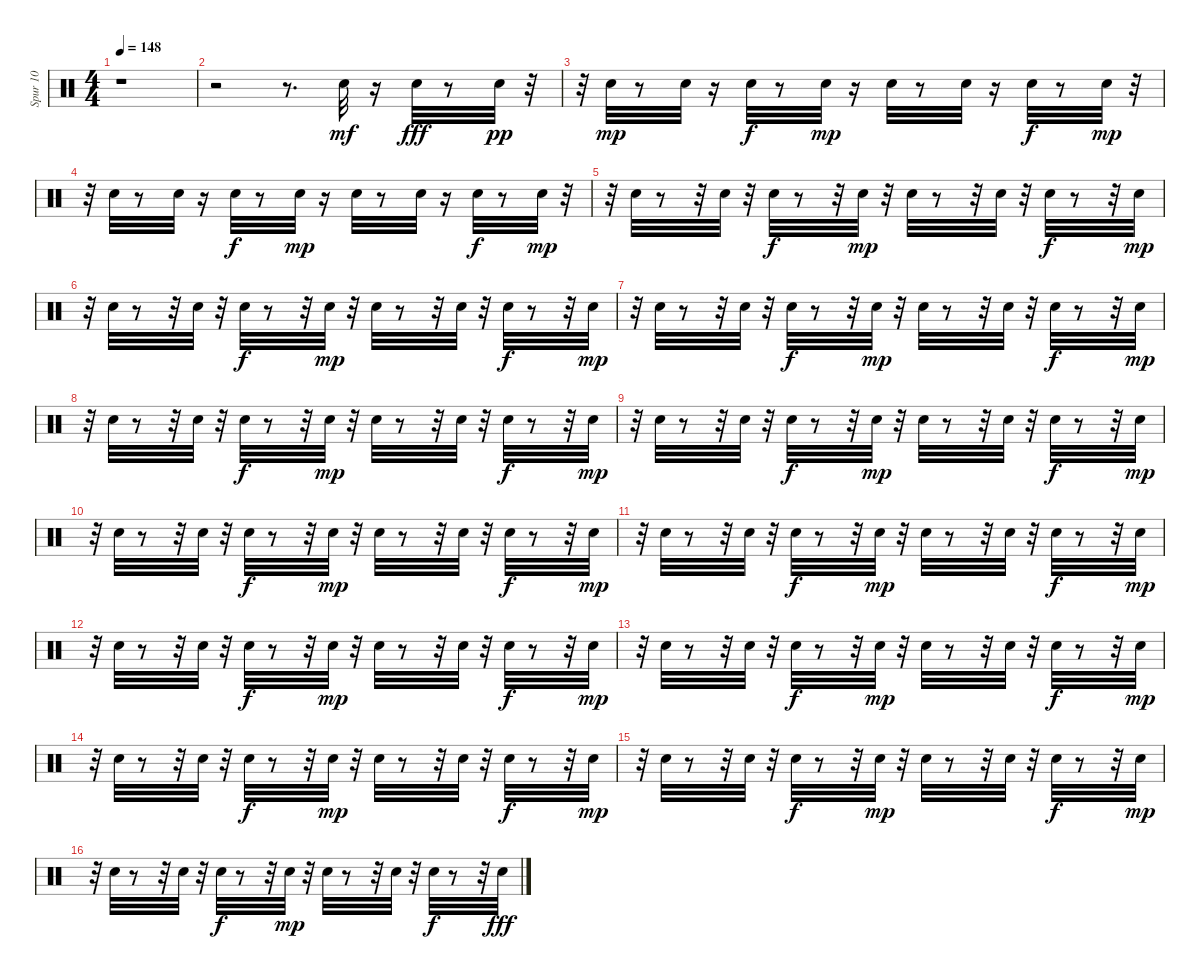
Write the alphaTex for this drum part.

\track ("Spur 10" "Spur 10") {instrument percussion}
\staff {score}
\articulation defaults
\ts (4 4)
\tempo 148
\clef neutral
\ks c
r.1{dy fff} |
r.2 r.8{d} "Snare (hit) 2".32{dy mf} r.16 "Snare (hit) 2".32{dy fff} r.8 "Snare (hit) 2".32{dy pp} r.32 |
r.32 "Snare (hit) 2".32{dy mp} r.8 "Snare (hit) 2".32 r.16 "Snare (hit) 2".32{dy f} r.8 "Snare (hit) 2".32{dy mp} r.16 "Snare (hit) 2".32 r.8 "Snare (hit) 2".32 r.16 "Snare (hit) 2".32{dy f} r.8 "Snare (hit) 2".32{dy mp} r.32 |
r.32 "Snare (hit) 2".32 r.8 "Snare (hit) 2".32 r.16 "Snare (hit) 2".32{dy f} r.8 "Snare (hit) 2".32{dy mp} r.16 "Snare (hit) 2".32 r.8 "Snare (hit) 2".32 r.16 "Snare (hit) 2".32{dy f} r.8 "Snare (hit) 2".32{dy mp} r.32 |
r.32 "Snare (hit) 2".32 r.8 r.32 "Snare (hit) 2".32 r.32 "Snare (hit) 2".32{dy f} r.8 r.32 "Snare (hit) 2".32{dy mp} r.32 "Snare (hit) 2".32 r.8 r.32 "Snare (hit) 2".32 r.32 "Snare (hit) 2".32{dy f} r.8 r.32 "Snare (hit) 2".32{dy mp} |
r.32 "Snare (hit) 2".32 r.8 r.32 "Snare (hit) 2".32 r.32 "Snare (hit) 2".32{dy f} r.8 r.32 "Snare (hit) 2".32{dy mp} r.32 "Snare (hit) 2".32 r.8 r.32 "Snare (hit) 2".32 r.32 "Snare (hit) 2".32{dy f} r.8 r.32 "Snare (hit) 2".32{dy mp} |
r.32 "Snare (hit) 2".32 r.8 r.32 "Snare (hit) 2".32 r.32 "Snare (hit) 2".32{dy f} r.8 r.32 "Snare (hit) 2".32{dy mp} r.32 "Snare (hit) 2".32 r.8 r.32 "Snare (hit) 2".32 r.32 "Snare (hit) 2".32{dy f} r.8 r.32 "Snare (hit) 2".32{dy mp} |
r.32 "Snare (hit) 2".32 r.8 r.32 "Snare (hit) 2".32 r.32 "Snare (hit) 2".32{dy f} r.8 r.32 "Snare (hit) 2".32{dy mp} r.32 "Snare (hit) 2".32 r.8 r.32 "Snare (hit) 2".32 r.32 "Snare (hit) 2".32{dy f} r.8 r.32 "Snare (hit) 2".32{dy mp} |
r.32 "Snare (hit) 2".32 r.8 r.32 "Snare (hit) 2".32 r.32 "Snare (hit) 2".32{dy f} r.8 r.32 "Snare (hit) 2".32{dy mp} r.32 "Snare (hit) 2".32 r.8 r.32 "Snare (hit) 2".32 r.32 "Snare (hit) 2".32{dy f} r.8 r.32 "Snare (hit) 2".32{dy mp} |
r.32 "Snare (hit) 2".32 r.8 r.32 "Snare (hit) 2".32 r.32 "Snare (hit) 2".32{dy f} r.8 r.32 "Snare (hit) 2".32{dy mp} r.32 "Snare (hit) 2".32 r.8 r.32 "Snare (hit) 2".32 r.32 "Snare (hit) 2".32{dy f} r.8 r.32 "Snare (hit) 2".32{dy mp} |
r.32 "Snare (hit) 2".32 r.8 r.32 "Snare (hit) 2".32 r.32 "Snare (hit) 2".32{dy f} r.8 r.32 "Snare (hit) 2".32{dy mp} r.32 "Snare (hit) 2".32 r.8 r.32 "Snare (hit) 2".32 r.32 "Snare (hit) 2".32{dy f} r.8 r.32 "Snare (hit) 2".32{dy mp} |
r.32 "Snare (hit) 2".32 r.8 r.32 "Snare (hit) 2".32 r.32 "Snare (hit) 2".32{dy f} r.8 r.32 "Snare (hit) 2".32{dy mp} r.32 "Snare (hit) 2".32 r.8 r.32 "Snare (hit) 2".32 r.32 "Snare (hit) 2".32{dy f} r.8 r.32 "Snare (hit) 2".32{dy mp} |
r.32 "Snare (hit) 2".32 r.8 r.32 "Snare (hit) 2".32 r.32 "Snare (hit) 2".32{dy f} r.8 r.32 "Snare (hit) 2".32{dy mp} r.32 "Snare (hit) 2".32 r.8 r.32 "Snare (hit) 2".32 r.32 "Snare (hit) 2".32{dy f} r.8 r.32 "Snare (hit) 2".32{dy mp} |
r.32 "Snare (hit) 2".32 r.8 r.32 "Snare (hit) 2".32 r.32 "Snare (hit) 2".32{dy f} r.8 r.32 "Snare (hit) 2".32{dy mp} r.32 "Snare (hit) 2".32 r.8 r.32 "Snare (hit) 2".32 r.32 "Snare (hit) 2".32{dy f} r.8 r.32 "Snare (hit) 2".32{dy mp} |
r.32 "Snare (hit) 2".32 r.8 r.32 "Snare (hit) 2".32 r.32 "Snare (hit) 2".32{dy f} r.8 r.32 "Snare (hit) 2".32{dy mp} r.32 "Snare (hit) 2".32 r.8 r.32 "Snare (hit) 2".32 r.32 "Snare (hit) 2".32{dy f} r.8 r.32 "Snare (hit) 2".32{dy mp} |
r.32 "Snare (hit) 2".32 r.8 r.32 "Snare (hit) 2".32 r.32 "Snare (hit) 2".32{dy f} r.8 r.32 "Snare (hit) 2".32{dy mp} r.32 "Snare (hit) 2".32 r.8 r.32 "Snare (hit) 2".32 r.32 "Snare (hit) 2".32{dy f} r.8 r.32 "Snare (hit) 2".32{dy fff}
